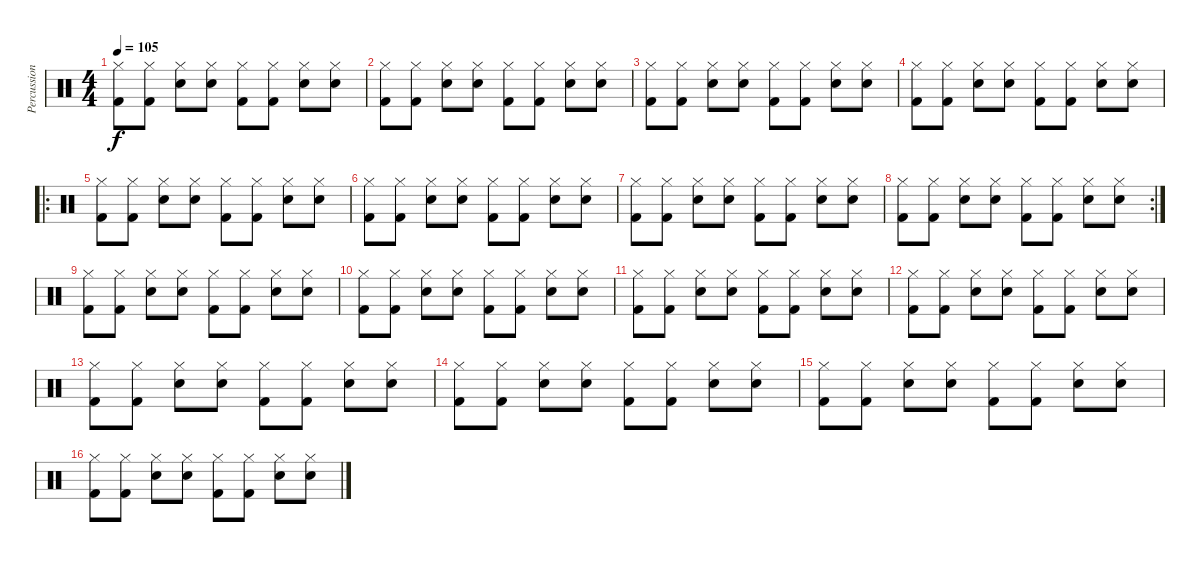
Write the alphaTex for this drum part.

\track ("Percussion" "Percussion") {instrument percussion}
\staff {score}
\articulation defaults
\ts (4 4)
\tempo 105
\clef neutral
\ks c
("Kick (hit) 2" "Hi-Hat (closed)").8{dy f} ("Kick (hit) 2" "Hi-Hat (closed)").8 ("Snare (hit) 2" "Hi-Hat (closed)").8 ("Snare (hit) 2" "Hi-Hat (closed)").8 ("Kick (hit) 2" "Hi-Hat (closed)").8 ("Kick (hit) 2" "Hi-Hat (closed)").8 ("Snare (hit) 2" "Hi-Hat (closed)").8 ("Snare (hit) 2" "Hi-Hat (closed)").8 |
("Kick (hit) 2" "Hi-Hat (closed)").8 ("Kick (hit) 2" "Hi-Hat (closed)").8 ("Snare (hit) 2" "Hi-Hat (closed)").8 ("Snare (hit) 2" "Hi-Hat (closed)").8 ("Kick (hit) 2" "Hi-Hat (closed)").8 ("Kick (hit) 2" "Hi-Hat (closed)").8 ("Snare (hit) 2" "Hi-Hat (closed)").8 ("Snare (hit) 2" "Hi-Hat (closed)").8 |
("Kick (hit) 2" "Hi-Hat (closed)").8 ("Kick (hit) 2" "Hi-Hat (closed)").8 ("Snare (hit) 2" "Hi-Hat (closed)").8 ("Snare (hit) 2" "Hi-Hat (closed)").8 ("Kick (hit) 2" "Hi-Hat (closed)").8 ("Kick (hit) 2" "Hi-Hat (closed)").8 ("Snare (hit) 2" "Hi-Hat (closed)").8 ("Snare (hit) 2" "Hi-Hat (closed)").8 |
("Kick (hit) 2" "Hi-Hat (closed)").8 ("Kick (hit) 2" "Hi-Hat (closed)").8 ("Snare (hit) 2" "Hi-Hat (closed)").8 ("Snare (hit) 2" "Hi-Hat (closed)").8 ("Kick (hit) 2" "Hi-Hat (closed)").8 ("Kick (hit) 2" "Hi-Hat (closed)").8 ("Snare (hit) 2" "Hi-Hat (closed)").8 ("Snare (hit) 2" "Hi-Hat (closed)").8 |
\ro
("Kick (hit) 2" "Hi-Hat (closed)").8 ("Kick (hit) 2" "Hi-Hat (closed)").8 ("Snare (hit) 2" "Hi-Hat (closed)").8 ("Snare (hit) 2" "Hi-Hat (closed)").8 ("Kick (hit) 2" "Hi-Hat (closed)").8 ("Kick (hit) 2" "Hi-Hat (closed)").8 ("Snare (hit) 2" "Hi-Hat (closed)").8 ("Snare (hit) 2" "Hi-Hat (closed)").8 |
("Kick (hit) 2" "Hi-Hat (closed)").8 ("Kick (hit) 2" "Hi-Hat (closed)").8 ("Snare (hit) 2" "Hi-Hat (closed)").8 ("Snare (hit) 2" "Hi-Hat (closed)").8 ("Kick (hit) 2" "Hi-Hat (closed)").8 ("Kick (hit) 2" "Hi-Hat (closed)").8 ("Snare (hit) 2" "Hi-Hat (closed)").8 ("Snare (hit) 2" "Hi-Hat (closed)").8 |
("Kick (hit) 2" "Hi-Hat (closed)").8 ("Kick (hit) 2" "Hi-Hat (closed)").8 ("Snare (hit) 2" "Hi-Hat (closed)").8 ("Snare (hit) 2" "Hi-Hat (closed)").8 ("Kick (hit) 2" "Hi-Hat (closed)").8 ("Kick (hit) 2" "Hi-Hat (closed)").8 ("Snare (hit) 2" "Hi-Hat (closed)").8 ("Snare (hit) 2" "Hi-Hat (closed)").8 |
\rc 2
("Kick (hit) 2" "Hi-Hat (closed)").8 ("Kick (hit) 2" "Hi-Hat (closed)").8 ("Snare (hit) 2" "Hi-Hat (closed)").8 ("Snare (hit) 2" "Hi-Hat (closed)").8 ("Kick (hit) 2" "Hi-Hat (closed)").8 ("Kick (hit) 2" "Hi-Hat (closed)").8 ("Snare (hit) 2" "Hi-Hat (closed)").8 ("Snare (hit) 2" "Hi-Hat (closed)").8 |
("Kick (hit) 2" "Hi-Hat (closed)").8 ("Kick (hit) 2" "Hi-Hat (closed)").8 ("Snare (hit) 2" "Hi-Hat (closed)").8 ("Snare (hit) 2" "Hi-Hat (closed)").8 ("Kick (hit) 2" "Hi-Hat (closed)").8 ("Kick (hit) 2" "Hi-Hat (closed)").8 ("Snare (hit) 2" "Hi-Hat (closed)").8 ("Snare (hit) 2" "Hi-Hat (closed)").8 |
("Kick (hit) 2" "Hi-Hat (closed)").8 ("Kick (hit) 2" "Hi-Hat (closed)").8 ("Snare (hit) 2" "Hi-Hat (closed)").8 ("Snare (hit) 2" "Hi-Hat (closed)").8 ("Kick (hit) 2" "Hi-Hat (closed)").8 ("Kick (hit) 2" "Hi-Hat (closed)").8 ("Snare (hit) 2" "Hi-Hat (closed)").8 ("Snare (hit) 2" "Hi-Hat (closed)").8 |
("Kick (hit) 2" "Hi-Hat (closed)").8 ("Kick (hit) 2" "Hi-Hat (closed)").8 ("Snare (hit) 2" "Hi-Hat (closed)").8 ("Snare (hit) 2" "Hi-Hat (closed)").8 ("Kick (hit) 2" "Hi-Hat (closed)").8 ("Kick (hit) 2" "Hi-Hat (closed)").8 ("Snare (hit) 2" "Hi-Hat (closed)").8 ("Snare (hit) 2" "Hi-Hat (closed)").8 |
("Kick (hit) 2" "Hi-Hat (closed)").8 ("Kick (hit) 2" "Hi-Hat (closed)").8 ("Snare (hit) 2" "Hi-Hat (closed)").8 ("Snare (hit) 2" "Hi-Hat (closed)").8 ("Kick (hit) 2" "Hi-Hat (closed)").8 ("Kick (hit) 2" "Hi-Hat (closed)").8 ("Snare (hit) 2" "Hi-Hat (closed)").8 ("Snare (hit) 2" "Hi-Hat (closed)").8 |
("Kick (hit) 2" "Hi-Hat (closed)").8 ("Kick (hit) 2" "Hi-Hat (closed)").8 ("Snare (hit) 2" "Hi-Hat (closed)").8 ("Snare (hit) 2" "Hi-Hat (closed)").8 ("Kick (hit) 2" "Hi-Hat (closed)").8 ("Kick (hit) 2" "Hi-Hat (closed)").8 ("Snare (hit) 2" "Hi-Hat (closed)").8 ("Snare (hit) 2" "Hi-Hat (closed)").8 |
("Kick (hit) 2" "Hi-Hat (closed)").8 ("Kick (hit) 2" "Hi-Hat (closed)").8 ("Snare (hit) 2" "Hi-Hat (closed)").8 ("Snare (hit) 2" "Hi-Hat (closed)").8 ("Kick (hit) 2" "Hi-Hat (closed)").8 ("Kick (hit) 2" "Hi-Hat (closed)").8 ("Snare (hit) 2" "Hi-Hat (closed)").8 ("Snare (hit) 2" "Hi-Hat (closed)").8 |
("Kick (hit) 2" "Hi-Hat (closed)").8 ("Kick (hit) 2" "Hi-Hat (closed)").8 ("Snare (hit) 2" "Hi-Hat (closed)").8 ("Snare (hit) 2" "Hi-Hat (closed)").8 ("Kick (hit) 2" "Hi-Hat (closed)").8 ("Kick (hit) 2" "Hi-Hat (closed)").8 ("Snare (hit) 2" "Hi-Hat (closed)").8 ("Snare (hit) 2" "Hi-Hat (closed)").8 |
("Kick (hit) 2" "Hi-Hat (closed)").8 ("Kick (hit) 2" "Hi-Hat (closed)").8 ("Snare (hit) 2" "Hi-Hat (closed)").8 ("Snare (hit) 2" "Hi-Hat (closed)").8 ("Kick (hit) 2" "Hi-Hat (closed)").8 ("Kick (hit) 2" "Hi-Hat (closed)").8 ("Snare (hit) 2" "Hi-Hat (closed)").8 ("Snare (hit) 2" "Hi-Hat (closed)").8
